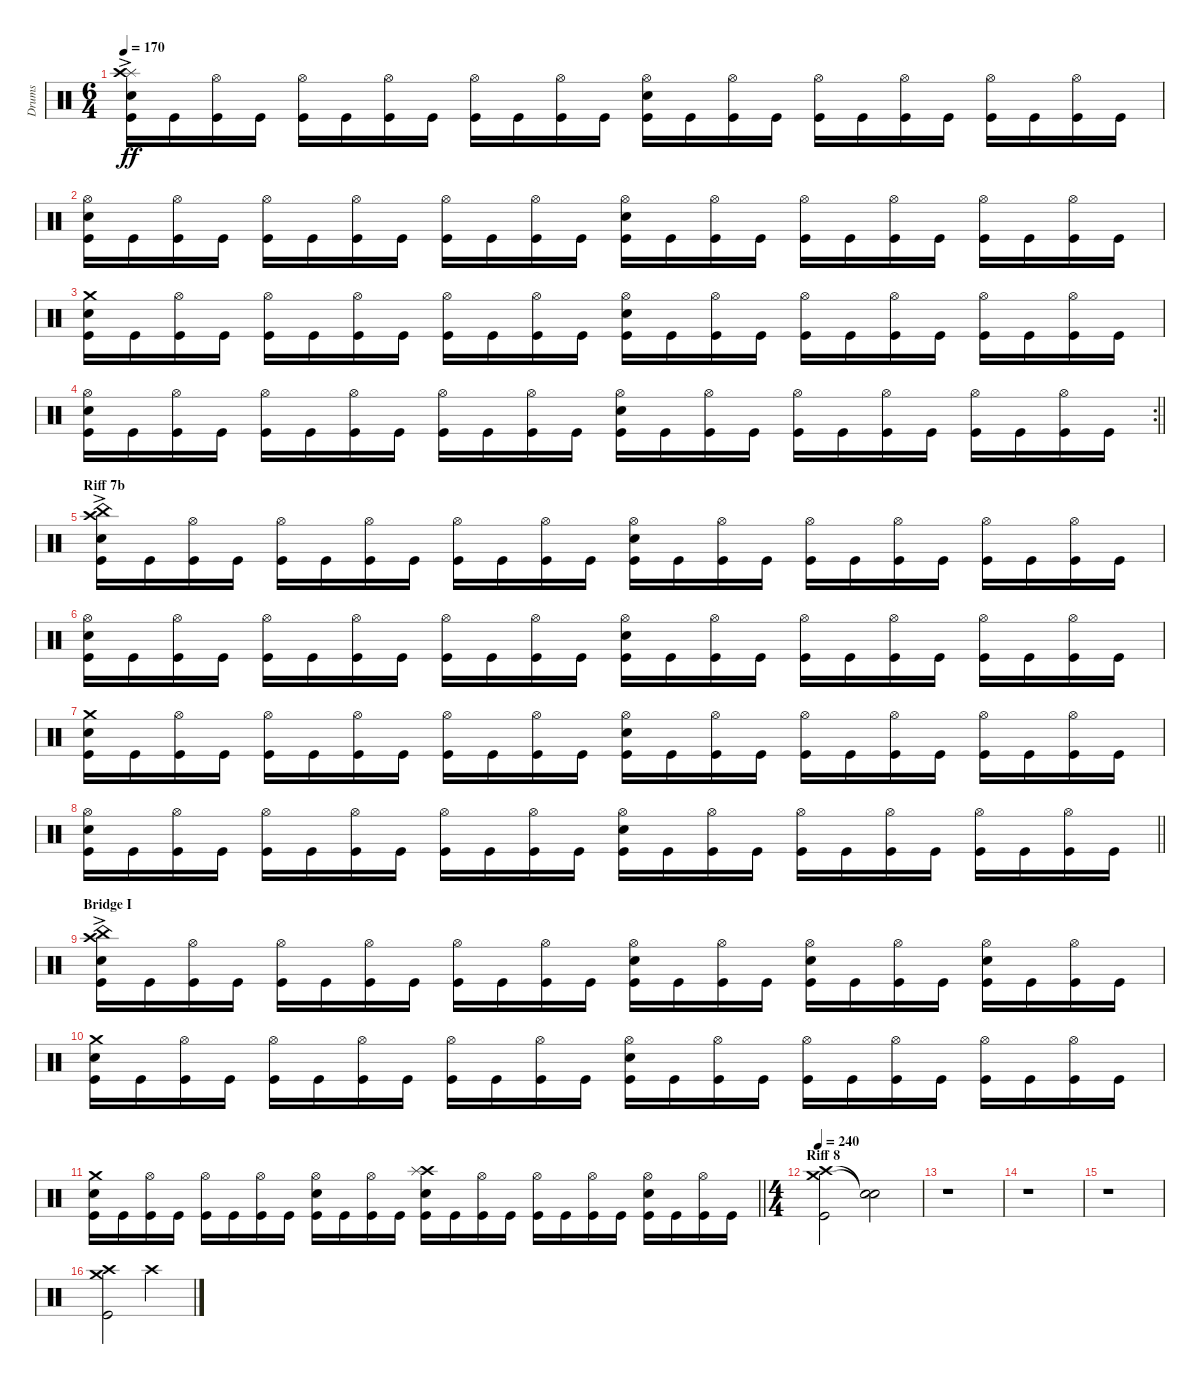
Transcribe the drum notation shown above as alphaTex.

\track ("Drums" "Drums") {instrument percussion}
\staff {score}
\articulation defaults
\ts (6 4)
\tempo 170
\clef neutral
\ks c
("Splash (hit)"{ac} "Crash high (hit)" "Electric Snare (hit)" "Kick (hit)").16{dy ff} "Kick (hit)".16 ("Hi-Hat (open)" "Kick (hit)").16 "Kick (hit)".16 ("Hi-Hat (open)" "Kick (hit)").16 "Kick (hit)".16 ("Hi-Hat (open)" "Kick (hit)").16 "Kick (hit)".16 ("Hi-Hat (open)" "Kick (hit)").16 "Kick (hit)".16 ("Hi-Hat (open)" "Kick (hit)").16 "Kick (hit)".16 ("Hi-Hat (open)" "Electric Snare (hit)" "Kick (hit)").16 "Kick (hit)".16 ("Hi-Hat (open)" "Kick (hit)").16 "Kick (hit)".16 ("Hi-Hat (open)" "Kick (hit)").16 "Kick (hit)".16 ("Hi-Hat (open)" "Kick (hit)").16 "Kick (hit)".16 ("Hi-Hat (open)" "Kick (hit)").16 "Kick (hit)".16 ("Hi-Hat (open)" "Kick (hit)").16 "Kick (hit)".16 |
("Hi-Hat (open)" "Electric Snare (hit)" "Kick (hit)").16 "Kick (hit)".16 ("Hi-Hat (open)" "Kick (hit)").16 "Kick (hit)".16 ("Hi-Hat (open)" "Kick (hit)").16 "Kick (hit)".16 ("Hi-Hat (open)" "Kick (hit)").16 "Kick (hit)".16 ("Hi-Hat (open)" "Kick (hit)").16 "Kick (hit)".16 ("Hi-Hat (open)" "Kick (hit)").16 "Kick (hit)".16 ("Hi-Hat (open)" "Electric Snare (hit)" "Kick (hit)").16 "Kick (hit)".16 ("Hi-Hat (open)" "Kick (hit)").16 "Kick (hit)".16 ("Hi-Hat (open)" "Kick (hit)").16 "Kick (hit)".16 ("Hi-Hat (open)" "Kick (hit)").16 "Kick (hit)".16 ("Hi-Hat (open)" "Kick (hit)").16 "Kick (hit)".16 ("Hi-Hat (open)" "Kick (hit)").16 "Kick (hit)".16 |
("Crash medium (hit)" "Electric Snare (hit)" "Kick (hit)").16 "Kick (hit)".16 ("Hi-Hat (open)" "Kick (hit)").16 "Kick (hit)".16 ("Hi-Hat (open)" "Kick (hit)").16 "Kick (hit)".16 ("Hi-Hat (open)" "Kick (hit)").16 "Kick (hit)".16 ("Hi-Hat (open)" "Kick (hit)").16 "Kick (hit)".16 ("Hi-Hat (open)" "Kick (hit)").16 "Kick (hit)".16 ("Hi-Hat (open)" "Electric Snare (hit)" "Kick (hit)").16 "Kick (hit)".16 ("Hi-Hat (open)" "Kick (hit)").16 "Kick (hit)".16 ("Hi-Hat (open)" "Kick (hit)").16 "Kick (hit)".16 ("Hi-Hat (open)" "Kick (hit)").16 "Kick (hit)".16 ("Hi-Hat (open)" "Kick (hit)").16 "Kick (hit)".16 ("Hi-Hat (open)" "Kick (hit)").16 "Kick (hit)".16 |
\rc 2
\barLineRight lightlight
("Hi-Hat (open)" "Electric Snare (hit)" "Kick (hit)").16 "Kick (hit)".16 ("Hi-Hat (open)" "Kick (hit)").16 "Kick (hit)".16 ("Hi-Hat (open)" "Kick (hit)").16 "Kick (hit)".16 ("Hi-Hat (open)" "Kick (hit)").16 "Kick (hit)".16 ("Hi-Hat (open)" "Kick (hit)").16 "Kick (hit)".16 ("Hi-Hat (open)" "Kick (hit)").16 "Kick (hit)".16 ("Hi-Hat (open)" "Electric Snare (hit)" "Kick (hit)").16 "Kick (hit)".16 ("Hi-Hat (open)" "Kick (hit)").16 "Kick (hit)".16 ("Hi-Hat (open)" "Kick (hit)").16 "Kick (hit)".16 ("Hi-Hat (open)" "Kick (hit)").16 "Kick (hit)".16 ("Hi-Hat (open)" "Kick (hit)").16 "Kick (hit)".16 ("Hi-Hat (open)" "Kick (hit)").16 "Kick (hit)".16 |
\section ("" "Riff 7b")
("China (hit)"{ac} "Crash high (hit)" "Electric Snare (hit)" "Kick (hit)").16 "Kick (hit)".16 ("Hi-Hat (open)" "Kick (hit)").16 "Kick (hit)".16 ("Hi-Hat (open)" "Kick (hit)").16 "Kick (hit)".16 ("Hi-Hat (open)" "Kick (hit)").16 "Kick (hit)".16 ("Hi-Hat (open)" "Kick (hit)").16 "Kick (hit)".16 ("Hi-Hat (open)" "Kick (hit)").16 "Kick (hit)".16 ("Hi-Hat (open)" "Electric Snare (hit)" "Kick (hit)").16 "Kick (hit)".16 ("Hi-Hat (open)" "Kick (hit)").16 "Kick (hit)".16 ("Hi-Hat (open)" "Kick (hit)").16 "Kick (hit)".16 ("Hi-Hat (open)" "Kick (hit)").16 "Kick (hit)".16 ("Hi-Hat (open)" "Kick (hit)").16 "Kick (hit)".16 ("Hi-Hat (open)" "Kick (hit)").16 "Kick (hit)".16 |
("Hi-Hat (open)" "Electric Snare (hit)" "Kick (hit)").16 "Kick (hit)".16 ("Hi-Hat (open)" "Kick (hit)").16 "Kick (hit)".16 ("Hi-Hat (open)" "Kick (hit)").16 "Kick (hit)".16 ("Hi-Hat (open)" "Kick (hit)").16 "Kick (hit)".16 ("Hi-Hat (open)" "Kick (hit)").16 "Kick (hit)".16 ("Hi-Hat (open)" "Kick (hit)").16 "Kick (hit)".16 ("Hi-Hat (open)" "Electric Snare (hit)" "Kick (hit)").16 "Kick (hit)".16 ("Hi-Hat (open)" "Kick (hit)").16 "Kick (hit)".16 ("Hi-Hat (open)" "Kick (hit)").16 "Kick (hit)".16 ("Hi-Hat (open)" "Kick (hit)").16 "Kick (hit)".16 ("Hi-Hat (open)" "Kick (hit)").16 "Kick (hit)".16 ("Hi-Hat (open)" "Kick (hit)").16 "Kick (hit)".16 |
("Crash medium (hit)" "Electric Snare (hit)" "Kick (hit)").16 "Kick (hit)".16 ("Hi-Hat (open)" "Kick (hit)").16 "Kick (hit)".16 ("Hi-Hat (open)" "Kick (hit)").16 "Kick (hit)".16 ("Hi-Hat (open)" "Kick (hit)").16 "Kick (hit)".16 ("Hi-Hat (open)" "Kick (hit)").16 "Kick (hit)".16 ("Hi-Hat (open)" "Kick (hit)").16 "Kick (hit)".16 ("Hi-Hat (open)" "Electric Snare (hit)" "Kick (hit)").16 "Kick (hit)".16 ("Hi-Hat (open)" "Kick (hit)").16 "Kick (hit)".16 ("Hi-Hat (open)" "Kick (hit)").16 "Kick (hit)".16 ("Hi-Hat (open)" "Kick (hit)").16 "Kick (hit)".16 ("Hi-Hat (open)" "Kick (hit)").16 "Kick (hit)".16 ("Hi-Hat (open)" "Kick (hit)").16 "Kick (hit)".16 |
\barLineRight lightlight
("Hi-Hat (open)" "Electric Snare (hit)" "Kick (hit)").16 "Kick (hit)".16 ("Hi-Hat (open)" "Kick (hit)").16 "Kick (hit)".16 ("Hi-Hat (open)" "Kick (hit)").16 "Kick (hit)".16 ("Hi-Hat (open)" "Kick (hit)").16 "Kick (hit)".16 ("Hi-Hat (open)" "Kick (hit)").16 "Kick (hit)".16 ("Hi-Hat (open)" "Kick (hit)").16 "Kick (hit)".16 ("Hi-Hat (open)" "Electric Snare (hit)" "Kick (hit)").16 "Kick (hit)".16 ("Hi-Hat (open)" "Kick (hit)").16 "Kick (hit)".16 ("Hi-Hat (open)" "Kick (hit)").16 "Kick (hit)".16 ("Hi-Hat (open)" "Kick (hit)").16 "Kick (hit)".16 ("Hi-Hat (open)" "Kick (hit)").16 "Kick (hit)".16 ("Hi-Hat (open)" "Kick (hit)").16 "Kick (hit)".16 |
\section ("" "Bridge I")
("China (hit)"{ac} "Crash high (hit)" "Electric Snare (hit)" "Kick (hit)").16 "Kick (hit)".16 ("Hi-Hat (open)" "Kick (hit)").16 "Kick (hit)".16 ("Hi-Hat (open)" "Kick (hit)").16 "Kick (hit)".16 ("Hi-Hat (open)" "Kick (hit)").16 "Kick (hit)".16 ("Hi-Hat (open)" "Kick (hit)").16 "Kick (hit)".16 ("Hi-Hat (open)" "Kick (hit)").16 "Kick (hit)".16 ("Hi-Hat (open)" "Electric Snare (hit)" "Kick (hit)").16 "Kick (hit)".16 ("Hi-Hat (open)" "Kick (hit)").16 "Kick (hit)".16 ("Hi-Hat (open)" "Electric Snare (hit)" "Kick (hit)").16 "Kick (hit)".16 ("Hi-Hat (open)" "Kick (hit)").16 "Kick (hit)".16 ("Hi-Hat (open)" "Electric Snare (hit)" "Kick (hit)").16 "Kick (hit)".16 ("Hi-Hat (open)" "Kick (hit)").16 "Kick (hit)".16 |
("Crash medium (hit)" "Electric Snare (hit)" "Kick (hit)").16 "Kick (hit)".16 ("Hi-Hat (open)" "Kick (hit)").16 "Kick (hit)".16 ("Hi-Hat (open)" "Kick (hit)").16 "Kick (hit)".16 ("Hi-Hat (open)" "Kick (hit)").16 "Kick (hit)".16 ("Hi-Hat (open)" "Kick (hit)").16 "Kick (hit)".16 ("Hi-Hat (open)" "Kick (hit)").16 "Kick (hit)".16 ("Hi-Hat (open)" "Electric Snare (hit)" "Kick (hit)").16 "Kick (hit)".16 ("Hi-Hat (open)" "Kick (hit)").16 "Kick (hit)".16 ("Hi-Hat (open)" "Kick (hit)").16 "Kick (hit)".16 ("Hi-Hat (open)" "Kick (hit)").16 "Kick (hit)".16 ("Hi-Hat (open)" "Kick (hit)").16 "Kick (hit)".16 ("Hi-Hat (open)" "Kick (hit)").16 "Kick (hit)".16 |
\barLineRight lightlight
("Crash medium (hit)" "Electric Snare (hit)" "Kick (hit)").16 "Kick (hit)".16 ("Hi-Hat (open)" "Kick (hit)").16 "Kick (hit)".16 ("Hi-Hat (open)" "Kick (hit)").16 "Kick (hit)".16 ("Hi-Hat (open)" "Kick (hit)").16 "Kick (hit)".16 ("Hi-Hat (open)" "Electric Snare (hit)" "Kick (hit)").16 "Kick (hit)".16 ("Hi-Hat (open)" "Kick (hit)").16 "Kick (hit)".16 ("Crash high (hit)" "Splash (hit)" "Electric Snare (hit)" "Kick (hit)").16 "Kick (hit)".16 ("Hi-Hat (open)" "Kick (hit)").16 "Kick (hit)".16 ("Hi-Hat (open)" "Kick (hit)").16 "Kick (hit)".16 ("Hi-Hat (open)" "Kick (hit)").16 "Kick (hit)".16 ("Hi-Hat (open)" "Electric Snare (hit)" "Kick (hit)").16 "Kick (hit)".16 ("Hi-Hat (open)" "Kick (hit)").16 "Kick (hit)".16 |
\ts (4 4)
\section ("" "Riff 8")
\tempo 240
("Crash high (hit)" "Crash medium (hit)" "Kick (hit)").2 ("Snare (hit)"{t} "Snare (hit)"{t}).2 |
r.1 |
r.1 |
r.1 |
("Crash high (hit)" "Crash medium (hit)" "Kick (hit)").2 "Crash high (hit)".2
